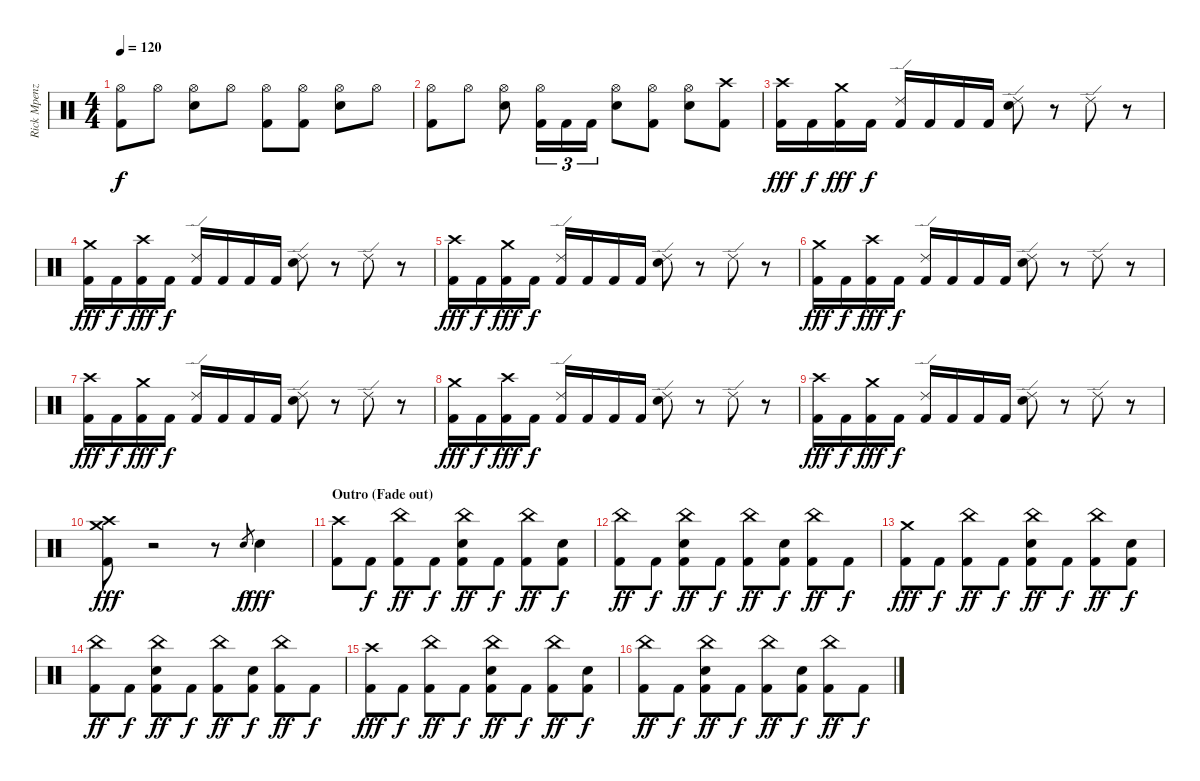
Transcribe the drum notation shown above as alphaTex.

\track ("Rick Mpenza" "Rick Mpenz") {instrument percussion}
\staff {score}
\articulation defaults
\ts (4 4)
\tempo 120
\clef neutral
\ks c
("Hi-Hat (open)" "Kick (hit) 2").8{dy f} "Hi-Hat (open)".8 ("Hi-Hat (open)" "Snare (hit) 2").8 "Hi-Hat (open)".8 ("Hi-Hat (open)" "Kick (hit) 2").8 ("Hi-Hat (open)" "Kick (hit) 2").8 ("Hi-Hat (open)" "Snare (hit) 2").8 "Hi-Hat (open)".8 |
("Hi-Hat (open)" "Kick (hit) 2").8 "Hi-Hat (open)".8 ("Hi-Hat (open)" "Snare (hit) 2").8 ("Hi-Hat (open)" "Kick (hit) 2").16{tu (3 2)} "Kick (hit) 2".16{tu (3 2)} "Kick (hit) 2".16{tu (3 2)} ("Hi-Hat (open)" "Snare (hit) 2").8 ("Hi-Hat (open)" "Kick (hit) 2").8 ("Hi-Hat (open)" "Snare (hit) 2").8 ("Crash high (hit)" "Kick (hit) 2").8 |
("Crash high (hit)" "Kick (hit) 2").16{dy fff} "Kick (hit) 2".16{dy f} ("Crash medium (hit)" "Kick (hit) 2").16{dy fff} "Kick (hit) 2".16{dy f} ("Ride (edge) 2" "Kick (hit) 2").16 "Kick (hit) 2".16 "Kick (hit) 2".16 "Kick (hit) 2".16 ("Ride (edge) 2" "Snare (hit) 2").8 r.8 "Ride (edge) 2".8 r.8 |
("Crash medium (hit)" "Kick (hit) 2").16{dy fff} "Kick (hit) 2".16{dy f} ("Crash high (hit)" "Kick (hit) 2").16{dy fff} "Kick (hit) 2".16{dy f} ("Ride (edge) 2" "Kick (hit) 2").16 "Kick (hit) 2".16 "Kick (hit) 2".16 "Kick (hit) 2".16 ("Ride (edge) 2" "Snare (hit) 2").8 r.8 "Ride (edge) 2".8 r.8 |
("Crash high (hit)" "Kick (hit) 2").16{dy fff} "Kick (hit) 2".16{dy f} ("Crash medium (hit)" "Kick (hit) 2").16{dy fff} "Kick (hit) 2".16{dy f} ("Ride (edge) 2" "Kick (hit) 2").16 "Kick (hit) 2".16 "Kick (hit) 2".16 "Kick (hit) 2".16 ("Ride (edge) 2" "Snare (hit) 2").8 r.8 "Ride (edge) 2".8 r.8 |
("Crash medium (hit)" "Kick (hit) 2").16{dy fff} "Kick (hit) 2".16{dy f} ("Crash high (hit)" "Kick (hit) 2").16{dy fff} "Kick (hit) 2".16{dy f} ("Ride (edge) 2" "Kick (hit) 2").16 "Kick (hit) 2".16 "Kick (hit) 2".16 "Kick (hit) 2".16 ("Ride (edge) 2" "Snare (hit) 2").8 r.8 "Ride (edge) 2".8 r.8 |
("Crash high (hit)" "Kick (hit) 2").16{dy fff} "Kick (hit) 2".16{dy f} ("Crash medium (hit)" "Kick (hit) 2").16{dy fff} "Kick (hit) 2".16{dy f} ("Ride (edge) 2" "Kick (hit) 2").16 "Kick (hit) 2".16 "Kick (hit) 2".16 "Kick (hit) 2".16 ("Ride (edge) 2" "Snare (hit) 2").8 r.8 "Ride (edge) 2".8 r.8 |
("Crash medium (hit)" "Kick (hit) 2").16{dy fff} "Kick (hit) 2".16{dy f} ("Crash high (hit)" "Kick (hit) 2").16{dy fff} "Kick (hit) 2".16{dy f} ("Ride (edge) 2" "Kick (hit) 2").16 "Kick (hit) 2".16 "Kick (hit) 2".16 "Kick (hit) 2".16 ("Ride (edge) 2" "Snare (hit) 2").8 r.8 "Ride (edge) 2".8 r.8 |
("Crash high (hit)" "Kick (hit) 2").16{dy fff} "Kick (hit) 2".16{dy f} ("Crash medium (hit)" "Kick (hit) 2").16{dy fff} "Kick (hit) 2".16{dy f} ("Ride (edge) 2" "Kick (hit) 2").16 "Kick (hit) 2".16 "Kick (hit) 2".16 "Kick (hit) 2".16 ("Ride (edge) 2" "Snare (hit) 2").8 r.8 "Ride (edge) 2".8 r.8 |
("Crash high (hit)" "Crash medium (hit)" "Kick (hit) 2").8{dy fff} r.2 r.8 "Snare (hit) 2".8{gr dy f} "Snare (hit) 2".4{dy fff} |
\section ("" "Outro (Fade out)")
("Crash high (hit)" "Kick (hit) 2").8 "Kick (hit) 2".8{dy f} ("China (hit)" "Kick (hit) 2").8{dy ff} "Kick (hit) 2".8{dy f} ("China (hit)" "Snare (hit) 2" "Kick (hit) 2").8{dy ff} "Kick (hit) 2".8{dy f} ("China (hit)" "Kick (hit) 2").8{dy ff} ("Snare (hit) 2" "Kick (hit) 2").8{dy f} |
("China (hit)" "Kick (hit) 2").8{dy ff} "Kick (hit) 2".8{dy f} ("China (hit)" "Snare (hit) 2" "Kick (hit) 2").8{dy ff} "Kick (hit) 2".8{dy f} ("China (hit)" "Kick (hit) 2").8{dy ff} ("Snare (hit) 2" "Kick (hit) 2").8{dy f} ("China (hit)" "Kick (hit) 2").8{dy ff} "Kick (hit) 2".8{dy f} |
("Crash medium (hit)" "Kick (hit) 2").8{dy fff} "Kick (hit) 2".8{dy f} ("China (hit)" "Kick (hit) 2").8{dy ff} "Kick (hit) 2".8{dy f} ("China (hit)" "Snare (hit) 2" "Kick (hit) 2").8{dy ff} "Kick (hit) 2".8{dy f} ("China (hit)" "Kick (hit) 2").8{dy ff} ("Snare (hit) 2" "Kick (hit) 2").8{dy f} |
("China (hit)" "Kick (hit) 2").8{dy ff} "Kick (hit) 2".8{dy f} ("China (hit)" "Snare (hit) 2" "Kick (hit) 2").8{dy ff} "Kick (hit) 2".8{dy f} ("China (hit)" "Kick (hit) 2").8{dy ff} ("Snare (hit) 2" "Kick (hit) 2").8{dy f} ("China (hit)" "Kick (hit) 2").8{dy ff} "Kick (hit) 2".8{dy f} |
("Crash high (hit)" "Kick (hit) 2").8{dy fff} "Kick (hit) 2".8{dy f} ("China (hit)" "Kick (hit) 2").8{dy ff} "Kick (hit) 2".8{dy f} ("China (hit)" "Snare (hit) 2" "Kick (hit) 2").8{dy ff} "Kick (hit) 2".8{dy f} ("China (hit)" "Kick (hit) 2").8{dy ff} ("Snare (hit) 2" "Kick (hit) 2").8{dy f} |
("China (hit)" "Kick (hit) 2").8{dy ff} "Kick (hit) 2".8{dy f} ("China (hit)" "Snare (hit) 2" "Kick (hit) 2").8{dy ff} "Kick (hit) 2".8{dy f} ("China (hit)" "Kick (hit) 2").8{dy ff} ("Snare (hit) 2" "Kick (hit) 2").8{dy f} ("China (hit)" "Kick (hit) 2").8{dy ff} "Kick (hit) 2".8{dy f}
